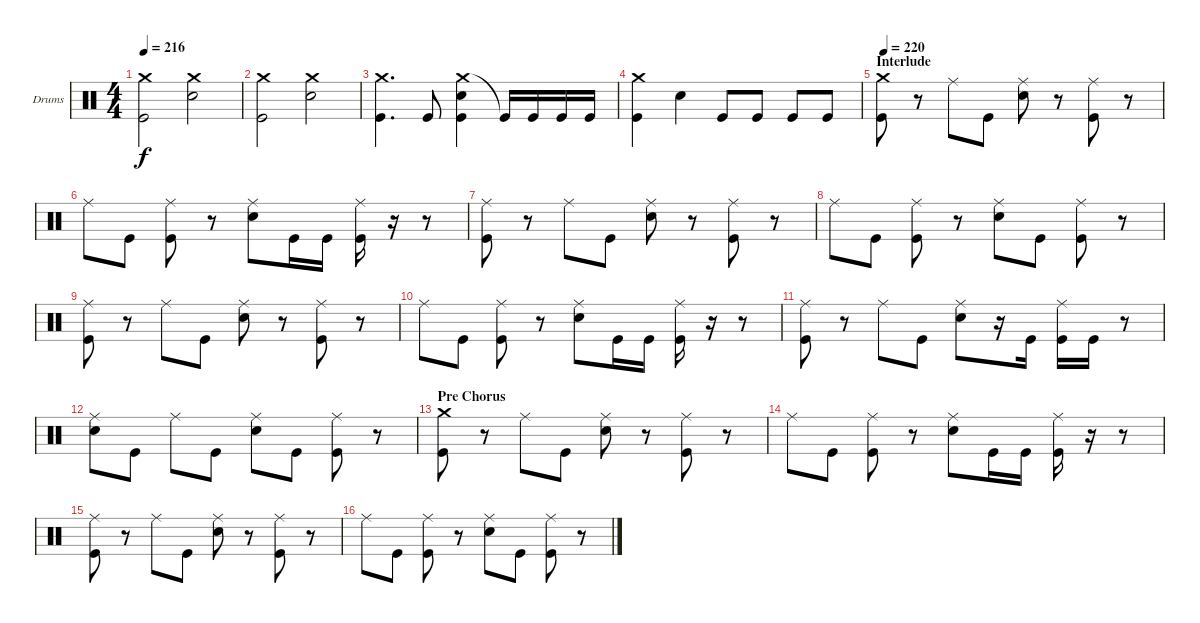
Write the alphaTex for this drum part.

\bracketExtendMode groupsimilarinstruments
\firstSystemTrackNameOrientation horizontal
\otherSystemsTrackNameOrientation horizontal
\track ("Drumkit" "Drums") {instrument percussion}
\staff {score}
\articulation defaults
\ts (4 4)
\tempo 216
\clef neutral
\ks c
("Crash medium (hit)" "Kick (hit)").2{dy f} ("Crash medium (hit)" "Snare (hit) 2").2 |
("Crash medium (hit)" "Kick (hit)").2 ("Crash medium (hit)" "Snare (hit) 2").2 |
("Crash medium (hit)" "Kick (hit)").4{d} "Kick (hit)".8 ("Crash medium (hit)" "Snare (hit) 2" "Kick (hit)").4 "Kick (hit)"{t}.16 "Kick (hit)".16 "Kick (hit)".16 "Kick (hit)".16 |
("Crash medium (hit)" "Kick (hit)").4 "Snare (hit) 2".4 "Kick (hit)".8 "Kick (hit)".8 "Kick (hit)".8 "Kick (hit)".8 |
\section ("" "Interlude")
\tempo (220 0.00625)
("Crash medium (hit)" "Kick (hit)").8 r.8 "Ride (middle)".8 "Kick (hit)".8 ("Ride (middle)" "Snare (hit) 2").8 r.8 ("Ride (middle)" "Kick (hit)").8 r.8 |
"Ride (middle)".8 "Kick (hit)".8 ("Ride (middle)" "Kick (hit)").8 r.8 ("Ride (middle)" "Snare (hit) 2").8 "Kick (hit)".16 "Kick (hit)".16 ("Ride (middle)" "Kick (hit)").16 r.16 r.8 |
("Ride (middle)" "Kick (hit)").8 r.8 "Ride (middle)".8 "Kick (hit)".8 ("Ride (middle)" "Snare (hit) 2").8 r.8 ("Ride (middle)" "Kick (hit)").8 r.8 |
"Ride (middle)".8 "Kick (hit)".8 ("Ride (middle)" "Kick (hit)").8 r.8 ("Ride (middle)" "Snare (hit) 2").8 "Kick (hit)".8 ("Ride (middle)" "Kick (hit)").8 r.8 |
("Ride (middle)" "Kick (hit)").8 r.8 "Ride (middle)".8 "Kick (hit)".8 ("Ride (middle)" "Snare (hit) 2").8 r.8 ("Ride (middle)" "Kick (hit)").8 r.8 |
"Ride (middle)".8 "Kick (hit)".8 ("Ride (middle)" "Kick (hit)").8 r.8 ("Ride (middle)" "Snare (hit) 2").8 "Kick (hit)".16 "Kick (hit)".16 ("Ride (middle)" "Kick (hit)").16 r.16 r.8 |
("Ride (middle)" "Kick (hit)").8 r.8 "Ride (middle)".8 "Kick (hit)".8 ("Ride (middle)" "Snare (hit) 2").8 r.16 "Kick (hit)".16 ("Ride (middle)" "Kick (hit)").16 "Kick (hit)".16 r.8 |
("Ride (middle)" "Snare (hit) 2").8 "Kick (hit)".8 "Ride (middle)".8 "Kick (hit)".8 ("Ride (middle)" "Snare (hit) 2").8 "Kick (hit)".8 ("Ride (middle)" "Kick (hit)").8 r.8 |
\section ("" "Pre Chorus")
("Crash medium (hit)" "Kick (hit)").8 r.8 "Ride (middle)".8 "Kick (hit)".8 ("Ride (middle)" "Snare (hit) 2").8 r.8 ("Ride (middle)" "Kick (hit)").8 r.8 |
"Ride (middle)".8 "Kick (hit)".8 ("Ride (middle)" "Kick (hit)").8 r.8 ("Ride (middle)" "Snare (hit) 2").8 "Kick (hit)".16 "Kick (hit)".16 ("Ride (middle)" "Kick (hit)").16 r.16 r.8 |
("Ride (middle)" "Kick (hit)").8 r.8 "Ride (middle)".8 "Kick (hit)".8 ("Ride (middle)" "Snare (hit) 2").8 r.8 ("Ride (middle)" "Kick (hit)").8 r.8 |
"Ride (middle)".8 "Kick (hit)".8 ("Ride (middle)" "Kick (hit)").8 r.8 ("Ride (middle)" "Snare (hit) 2").8 "Kick (hit)".8 ("Ride (middle)" "Kick (hit)").8 r.8
